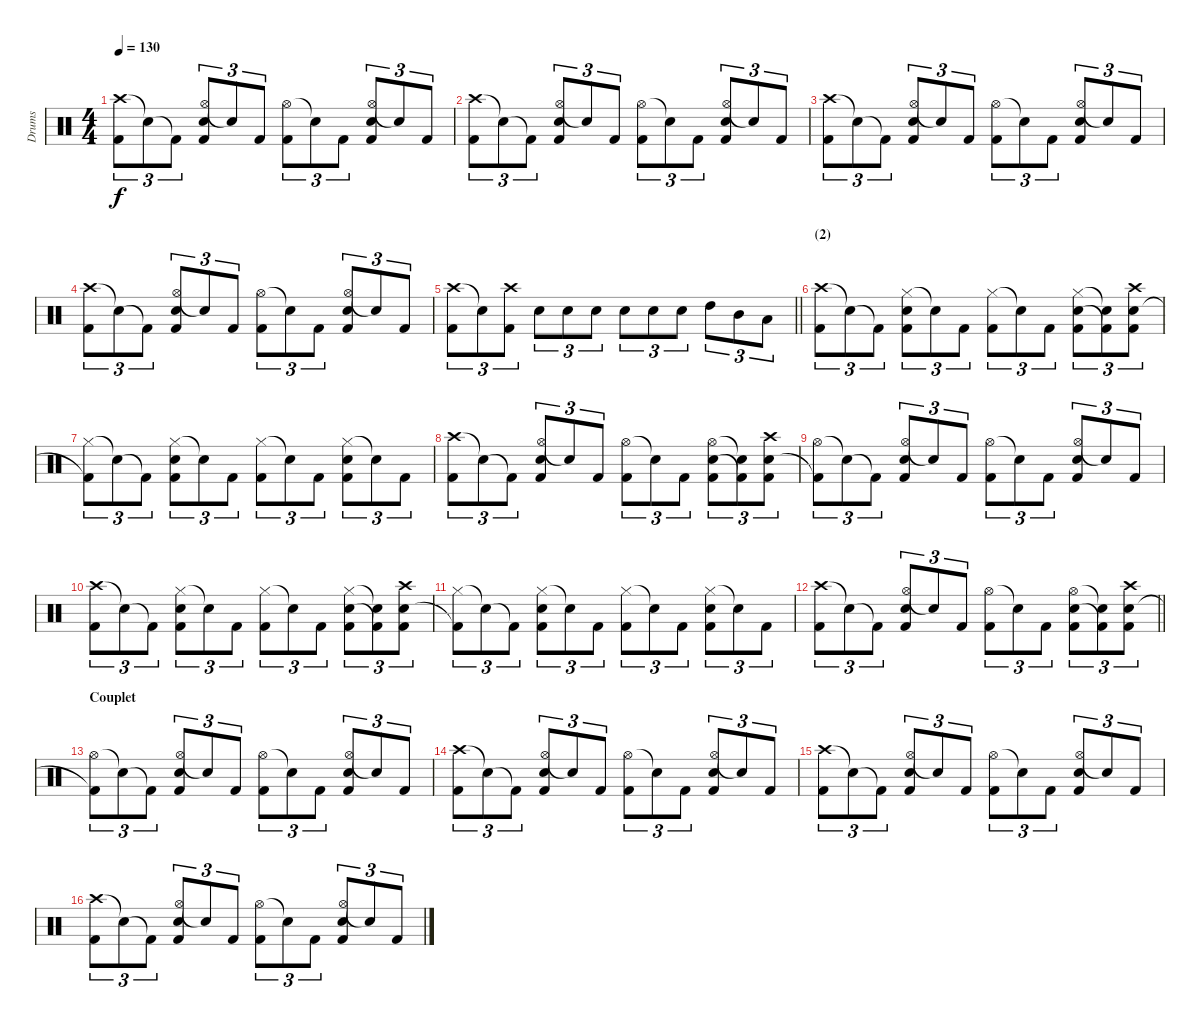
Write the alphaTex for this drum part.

\track ("Drums" "Drums") {instrument percussion}
\staff {score}
\articulation defaults
\ts (4 4)
\tempo 130
\clef neutral
\ks c
("Crash high (hit)" "Kick (hit) 2").8{tu (3 2) dy f} "Snare (hit)"{t}.8{tu (3 2)} "Kick (hit) 2"{t}.8{tu (3 2)} ("Hi-Hat (open)" "Electric Snare (hit)" "Kick (hit) 2").8{tu (3 2)} "Snare (hit)"{t}.8{tu (3 2)} "Kick (hit) 2".8{tu (3 2)} ("Hi-Hat (open)" "Kick (hit) 2").8{tu (3 2)} "Snare (hit)"{t}.8{tu (3 2)} "Kick (hit) 2".8{tu (3 2)} ("Hi-Hat (open)" "Electric Snare (hit)" "Kick (hit) 2").8{tu (3 2)} "Snare (hit)"{t}.8{tu (3 2)} "Kick (hit) 2".8{tu (3 2)} |
("Crash high (hit)" "Kick (hit) 2").8{tu (3 2)} "Snare (hit)"{t}.8{tu (3 2)} "Kick (hit) 2"{t}.8{tu (3 2)} ("Hi-Hat (open)" "Electric Snare (hit)" "Kick (hit) 2").8{tu (3 2)} "Snare (hit)"{t}.8{tu (3 2)} "Kick (hit) 2".8{tu (3 2)} ("Hi-Hat (open)" "Kick (hit) 2").8{tu (3 2)} "Snare (hit)"{t}.8{tu (3 2)} "Kick (hit) 2".8{tu (3 2)} ("Hi-Hat (open)" "Electric Snare (hit)" "Kick (hit) 2").8{tu (3 2)} "Snare (hit)"{t}.8{tu (3 2)} "Kick (hit) 2".8{tu (3 2)} |
("Crash high (hit)" "Kick (hit) 2").8{tu (3 2)} "Snare (hit)"{t}.8{tu (3 2)} "Kick (hit) 2"{t}.8{tu (3 2)} ("Hi-Hat (open)" "Electric Snare (hit)" "Kick (hit) 2").8{tu (3 2)} "Snare (hit)"{t}.8{tu (3 2)} "Kick (hit) 2".8{tu (3 2)} ("Hi-Hat (open)" "Kick (hit) 2").8{tu (3 2)} "Snare (hit)"{t}.8{tu (3 2)} "Kick (hit) 2".8{tu (3 2)} ("Hi-Hat (open)" "Electric Snare (hit)" "Kick (hit) 2").8{tu (3 2)} "Snare (hit)"{t}.8{tu (3 2)} "Kick (hit) 2".8{tu (3 2)} |
("Crash high (hit)" "Kick (hit) 2").8{tu (3 2)} "Snare (hit)"{t}.8{tu (3 2)} "Kick (hit) 2"{t}.8{tu (3 2)} ("Hi-Hat (open)" "Electric Snare (hit)" "Kick (hit) 2").8{tu (3 2)} "Snare (hit)"{t}.8{tu (3 2)} "Kick (hit) 2".8{tu (3 2)} ("Hi-Hat (open)" "Kick (hit) 2").8{tu (3 2)} "Snare (hit)"{t}.8{tu (3 2)} "Kick (hit) 2".8{tu (3 2)} ("Hi-Hat (open)" "Electric Snare (hit)" "Kick (hit) 2").8{tu (3 2)} "Snare (hit)"{t}.8{tu (3 2)} "Kick (hit) 2".8{tu (3 2)} |
\barLineRight lightlight
("Crash high (hit)" "Kick (hit) 2").8{tu (3 2)} "Snare (hit)"{t}.8{tu (3 2)} ("Crash high (hit)" "Kick (hit) 2").8{tu (3 2)} "Electric Snare (hit)".8{tu (3 2)} "Electric Snare (hit)".8{tu (3 2)} "Electric Snare (hit)".8{tu (3 2)} "Electric Snare (hit)".8{tu (3 2)} "Electric Snare (hit)".8{tu (3 2)} "Electric Snare (hit)".8{tu (3 2)} "High Tom (hit)".8{tu (3 2)} "Mid Tom (hit)".8{tu (3 2)} "Low Tom (hit)".8{tu (3 2)} |
\section ("" "(2)")
("Crash high (hit)" "Kick (hit) 2").8{tu (3 2)} "Snare (hit)"{t}.8{tu (3 2)} "Kick (hit) 2"{t}.8{tu (3 2)} ("Hi-Hat (closed)" "Electric Snare (hit)" "Kick (hit) 2").8{tu (3 2)} "Snare (hit)"{t}.8{tu (3 2)} "Kick (hit) 2".8{tu (3 2)} ("Hi-Hat (closed)" "Kick (hit) 2").8{tu (3 2)} "Snare (hit)"{t}.8{tu (3 2)} "Kick (hit) 2".8{tu (3 2)} ("Hi-Hat (closed)" "Electric Snare (hit)" "Kick (hit) 2").8{tu (3 2)} ("Electric Snare (hit)"{t} "Kick (hit) 2"{t}).8{tu (3 2)} ("Crash high (hit)" "Electric Snare (hit)" "Kick (hit) 2").8{tu (3 2)} |
("Hi-Hat (closed)" "Kick (hit) 2"{t}).8{tu (3 2)} "Snare (hit)"{t}.8{tu (3 2)} "Kick (hit) 2"{t}.8{tu (3 2)} ("Hi-Hat (closed)" "Electric Snare (hit)" "Kick (hit) 2").8{tu (3 2)} "Snare (hit)"{t}.8{tu (3 2)} "Kick (hit) 2".8{tu (3 2)} ("Hi-Hat (closed)" "Kick (hit) 2").8{tu (3 2)} "Snare (hit)"{t}.8{tu (3 2)} "Kick (hit) 2".8{tu (3 2)} ("Hi-Hat (closed)" "Electric Snare (hit)" "Kick (hit) 2").8{tu (3 2)} "Snare (hit)"{t}.8{tu (3 2)} "Kick (hit) 2".8{tu (3 2)} |
("Crash high (hit)" "Kick (hit) 2").8{tu (3 2)} "Snare (hit)"{t}.8{tu (3 2)} "Kick (hit) 2"{t}.8{tu (3 2)} ("Hi-Hat (open)" "Electric Snare (hit)" "Kick (hit) 2").8{tu (3 2)} "Snare (hit)"{t}.8{tu (3 2)} "Kick (hit) 2".8{tu (3 2)} ("Hi-Hat (open)" "Kick (hit) 2").8{tu (3 2)} "Snare (hit)"{t}.8{tu (3 2)} "Kick (hit) 2".8{tu (3 2)} ("Hi-Hat (open)" "Electric Snare (hit)" "Kick (hit) 2").8{tu (3 2)} ("Electric Snare (hit)"{t} "Kick (hit) 2"{t}).8{tu (3 2)} ("Crash high (hit)" "Electric Snare (hit)" "Kick (hit) 2").8{tu (3 2)} |
("Hi-Hat (open)" "Kick (hit) 2"{t}).8{tu (3 2)} "Snare (hit)"{t}.8{tu (3 2)} "Kick (hit) 2"{t}.8{tu (3 2)} ("Hi-Hat (open)" "Electric Snare (hit)" "Kick (hit) 2").8{tu (3 2)} "Snare (hit)"{t}.8{tu (3 2)} "Kick (hit) 2".8{tu (3 2)} ("Hi-Hat (open)" "Kick (hit) 2").8{tu (3 2)} "Snare (hit)"{t}.8{tu (3 2)} "Kick (hit) 2".8{tu (3 2)} ("Hi-Hat (open)" "Electric Snare (hit)" "Kick (hit) 2").8{tu (3 2)} "Snare (hit)"{t}.8{tu (3 2)} "Kick (hit) 2".8{tu (3 2)} |
("Crash high (hit)" "Kick (hit) 2").8{tu (3 2)} "Snare (hit)"{t}.8{tu (3 2)} "Kick (hit) 2"{t}.8{tu (3 2)} ("Hi-Hat (closed)" "Electric Snare (hit)" "Kick (hit) 2").8{tu (3 2)} "Snare (hit)"{t}.8{tu (3 2)} "Kick (hit) 2".8{tu (3 2)} ("Hi-Hat (closed)" "Kick (hit) 2").8{tu (3 2)} "Snare (hit)"{t}.8{tu (3 2)} "Kick (hit) 2".8{tu (3 2)} ("Hi-Hat (closed)" "Electric Snare (hit)" "Kick (hit) 2").8{tu (3 2)} ("Electric Snare (hit)"{t} "Kick (hit) 2"{t}).8{tu (3 2)} ("Crash high (hit)" "Electric Snare (hit)" "Kick (hit) 2").8{tu (3 2)} |
("Hi-Hat (closed)" "Kick (hit) 2"{t}).8{tu (3 2)} "Snare (hit)"{t}.8{tu (3 2)} "Kick (hit) 2"{t}.8{tu (3 2)} ("Hi-Hat (closed)" "Electric Snare (hit)" "Kick (hit) 2").8{tu (3 2)} "Snare (hit)"{t}.8{tu (3 2)} "Kick (hit) 2".8{tu (3 2)} ("Hi-Hat (closed)" "Kick (hit) 2").8{tu (3 2)} "Snare (hit)"{t}.8{tu (3 2)} "Kick (hit) 2".8{tu (3 2)} ("Hi-Hat (closed)" "Electric Snare (hit)" "Kick (hit) 2").8{tu (3 2)} "Snare (hit)"{t}.8{tu (3 2)} "Kick (hit) 2".8{tu (3 2)} |
\barLineRight lightlight
("Crash high (hit)" "Kick (hit) 2").8{tu (3 2)} "Snare (hit)"{t}.8{tu (3 2)} "Kick (hit) 2"{t}.8{tu (3 2)} ("Hi-Hat (open)" "Electric Snare (hit)" "Kick (hit) 2").8{tu (3 2)} "Snare (hit)"{t}.8{tu (3 2)} "Kick (hit) 2".8{tu (3 2)} ("Hi-Hat (open)" "Kick (hit) 2").8{tu (3 2)} "Snare (hit)"{t}.8{tu (3 2)} "Kick (hit) 2".8{tu (3 2)} ("Hi-Hat (open)" "Electric Snare (hit)" "Kick (hit) 2").8{tu (3 2)} ("Electric Snare (hit)"{t} "Kick (hit) 2"{t}).8{tu (3 2)} ("Crash high (hit)" "Electric Snare (hit)" "Kick (hit) 2").8{tu (3 2)} |
\section ("" "Couplet")
("Hi-Hat (open)" "Kick (hit) 2"{t}).8{tu (3 2)} "Snare (hit)"{t}.8{tu (3 2)} "Kick (hit) 2"{t}.8{tu (3 2)} ("Hi-Hat (open)" "Electric Snare (hit)" "Kick (hit) 2").8{tu (3 2)} "Snare (hit)"{t}.8{tu (3 2)} "Kick (hit) 2".8{tu (3 2)} ("Hi-Hat (open)" "Kick (hit) 2").8{tu (3 2)} "Snare (hit)"{t}.8{tu (3 2)} "Kick (hit) 2".8{tu (3 2)} ("Hi-Hat (open)" "Electric Snare (hit)" "Kick (hit) 2").8{tu (3 2)} "Snare (hit)"{t}.8{tu (3 2)} "Kick (hit) 2".8{tu (3 2)} |
("Crash high (hit)" "Kick (hit) 2").8{tu (3 2)} "Snare (hit)"{t}.8{tu (3 2)} "Kick (hit) 2"{t}.8{tu (3 2)} ("Hi-Hat (open)" "Electric Snare (hit)" "Kick (hit) 2").8{tu (3 2)} "Snare (hit)"{t}.8{tu (3 2)} "Kick (hit) 2".8{tu (3 2)} ("Hi-Hat (open)" "Kick (hit) 2").8{tu (3 2)} "Snare (hit)"{t}.8{tu (3 2)} "Kick (hit) 2".8{tu (3 2)} ("Hi-Hat (open)" "Electric Snare (hit)" "Kick (hit) 2").8{tu (3 2)} "Snare (hit)"{t}.8{tu (3 2)} "Kick (hit) 2".8{tu (3 2)} |
("Crash high (hit)" "Kick (hit) 2").8{tu (3 2)} "Snare (hit)"{t}.8{tu (3 2)} "Kick (hit) 2"{t}.8{tu (3 2)} ("Hi-Hat (open)" "Electric Snare (hit)" "Kick (hit) 2").8{tu (3 2)} "Snare (hit)"{t}.8{tu (3 2)} "Kick (hit) 2".8{tu (3 2)} ("Hi-Hat (open)" "Kick (hit) 2").8{tu (3 2)} "Snare (hit)"{t}.8{tu (3 2)} "Kick (hit) 2".8{tu (3 2)} ("Hi-Hat (open)" "Electric Snare (hit)" "Kick (hit) 2").8{tu (3 2)} "Snare (hit)"{t}.8{tu (3 2)} "Kick (hit) 2".8{tu (3 2)} |
("Crash high (hit)" "Kick (hit) 2").8{tu (3 2)} "Snare (hit)"{t}.8{tu (3 2)} "Kick (hit) 2"{t}.8{tu (3 2)} ("Hi-Hat (open)" "Electric Snare (hit)" "Kick (hit) 2").8{tu (3 2)} "Snare (hit)"{t}.8{tu (3 2)} "Kick (hit) 2".8{tu (3 2)} ("Hi-Hat (open)" "Kick (hit) 2").8{tu (3 2)} "Snare (hit)"{t}.8{tu (3 2)} "Kick (hit) 2".8{tu (3 2)} ("Hi-Hat (open)" "Electric Snare (hit)" "Kick (hit) 2").8{tu (3 2)} "Snare (hit)"{t}.8{tu (3 2)} "Kick (hit) 2".8{tu (3 2)}
